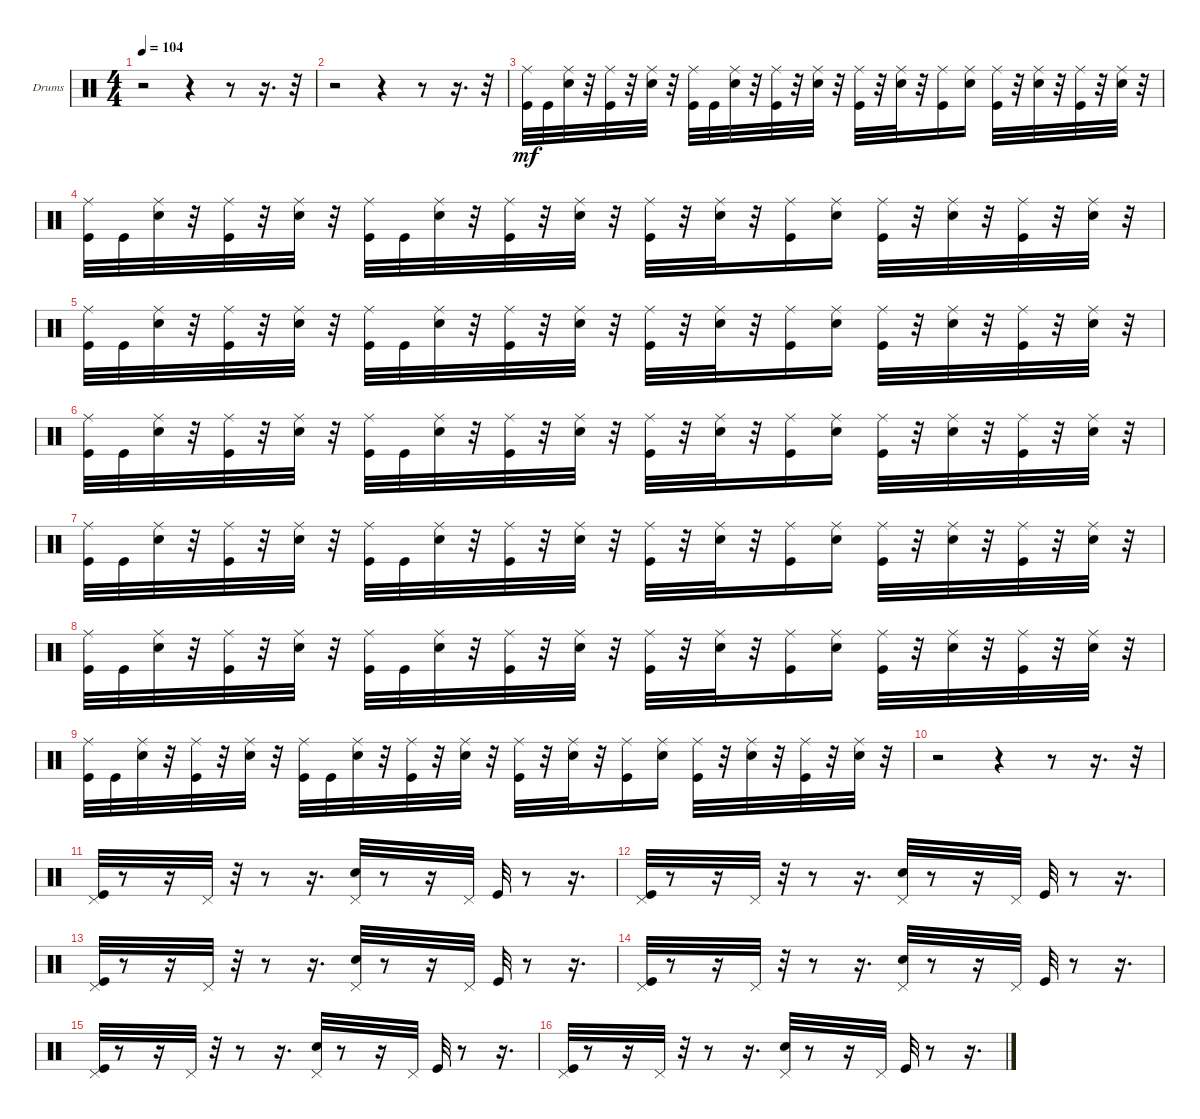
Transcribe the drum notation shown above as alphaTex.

\bracketExtendMode groupsimilarinstruments
\firstSystemTrackNameOrientation horizontal
\otherSystemsTrackNameOrientation horizontal
\track ("diviners drum" "Drums") {instrument percussion}
\staff {score}
\articulation defaults
\ts (4 4)
\tempo 104
\clef neutral
\ks c
r.2{dy mf} r.4 r.8 r.16{d} r.32 |
r.2 r.4 r.8 r.16{d} r.32 |
("Kick (hit)" "Ride (middle)").32 "Kick (hit)".32 ("Snare (hit) 2" "Ride (middle)").32 r.32 ("Kick (hit)" "Ride (middle)").32 r.32 ("Snare (hit) 2" "Ride (middle)").32 r.32 ("Kick (hit)" "Ride (middle)").32 "Kick (hit)".32 ("Snare (hit) 2" "Ride (middle)").32 r.32 ("Kick (hit)" "Ride (middle)").32 r.32 ("Snare (hit) 2" "Ride (middle)").32 r.32 ("Kick (hit)" "Ride (middle)").32 r.32 ("Snare (hit) 2" "Ride (middle)").32 r.32 ("Kick (hit)" "Ride (middle)").16 ("Snare (hit) 2" "Ride (middle)").16 ("Kick (hit)" "Ride (middle)").32 r.32 ("Snare (hit) 2" "Ride (middle)").32 r.32 ("Kick (hit)" "Ride (middle)").32 r.32 ("Snare (hit) 2" "Ride (middle)").32 r.32 |
("Kick (hit)" "Ride (middle)").32 "Kick (hit)".32 ("Snare (hit) 2" "Ride (middle)").32 r.32 ("Kick (hit)" "Ride (middle)").32 r.32 ("Snare (hit) 2" "Ride (middle)").32 r.32 ("Kick (hit)" "Ride (middle)").32 "Kick (hit)".32 ("Snare (hit) 2" "Ride (middle)").32 r.32 ("Kick (hit)" "Ride (middle)").32 r.32 ("Snare (hit) 2" "Ride (middle)").32 r.32 ("Kick (hit)" "Ride (middle)").32 r.32 ("Snare (hit) 2" "Ride (middle)").32 r.32 ("Kick (hit)" "Ride (middle)").16 ("Snare (hit) 2" "Ride (middle)").16 ("Kick (hit)" "Ride (middle)").32 r.32 ("Snare (hit) 2" "Ride (middle)").32 r.32 ("Kick (hit)" "Ride (middle)").32 r.32 ("Snare (hit) 2" "Ride (middle)").32 r.32 |
("Kick (hit)" "Ride (middle)").32 "Kick (hit)".32 ("Snare (hit) 2" "Ride (middle)").32 r.32 ("Kick (hit)" "Ride (middle)").32 r.32 ("Snare (hit) 2" "Ride (middle)").32 r.32 ("Kick (hit)" "Ride (middle)").32 "Kick (hit)".32 ("Snare (hit) 2" "Ride (middle)").32 r.32 ("Kick (hit)" "Ride (middle)").32 r.32 ("Snare (hit) 2" "Ride (middle)").32 r.32 ("Kick (hit)" "Ride (middle)").32 r.32 ("Snare (hit) 2" "Ride (middle)").32 r.32 ("Kick (hit)" "Ride (middle)").16 ("Snare (hit) 2" "Ride (middle)").16 ("Kick (hit)" "Ride (middle)").32 r.32 ("Snare (hit) 2" "Ride (middle)").32 r.32 ("Kick (hit)" "Ride (middle)").32 r.32 ("Snare (hit) 2" "Ride (middle)").32 r.32 |
("Kick (hit)" "Ride (middle)").32 "Kick (hit)".32 ("Snare (hit) 2" "Ride (middle)").32 r.32 ("Kick (hit)" "Ride (middle)").32 r.32 ("Snare (hit) 2" "Ride (middle)").32 r.32 ("Kick (hit)" "Ride (middle)").32 "Kick (hit)".32 ("Snare (hit) 2" "Ride (middle)").32 r.32 ("Kick (hit)" "Ride (middle)").32 r.32 ("Snare (hit) 2" "Ride (middle)").32 r.32 ("Kick (hit)" "Ride (middle)").32 r.32 ("Snare (hit) 2" "Ride (middle)").32 r.32 ("Kick (hit)" "Ride (middle)").16 ("Snare (hit) 2" "Ride (middle)").16 ("Kick (hit)" "Ride (middle)").32 r.32 ("Snare (hit) 2" "Ride (middle)").32 r.32 ("Kick (hit)" "Ride (middle)").32 r.32 ("Snare (hit) 2" "Ride (middle)").32 r.32 |
("Kick (hit)" "Ride (middle)").32 "Kick (hit)".32 ("Snare (hit) 2" "Ride (middle)").32 r.32 ("Kick (hit)" "Ride (middle)").32 r.32 ("Snare (hit) 2" "Ride (middle)").32 r.32 ("Kick (hit)" "Ride (middle)").32 "Kick (hit)".32 ("Snare (hit) 2" "Ride (middle)").32 r.32 ("Kick (hit)" "Ride (middle)").32 r.32 ("Snare (hit) 2" "Ride (middle)").32 r.32 ("Kick (hit)" "Ride (middle)").32 r.32 ("Snare (hit) 2" "Ride (middle)").32 r.32 ("Kick (hit)" "Ride (middle)").16 ("Snare (hit) 2" "Ride (middle)").16 ("Kick (hit)" "Ride (middle)").32 r.32 ("Snare (hit) 2" "Ride (middle)").32 r.32 ("Kick (hit)" "Ride (middle)").32 r.32 ("Snare (hit) 2" "Ride (middle)").32 r.32 |
("Kick (hit)" "Ride (middle)").32 "Kick (hit)".32 ("Snare (hit) 2" "Ride (middle)").32 r.32 ("Kick (hit)" "Ride (middle)").32 r.32 ("Snare (hit) 2" "Ride (middle)").32 r.32 ("Kick (hit)" "Ride (middle)").32 "Kick (hit)".32 ("Snare (hit) 2" "Ride (middle)").32 r.32 ("Kick (hit)" "Ride (middle)").32 r.32 ("Snare (hit) 2" "Ride (middle)").32 r.32 ("Kick (hit)" "Ride (middle)").32 r.32 ("Snare (hit) 2" "Ride (middle)").32 r.32 ("Kick (hit)" "Ride (middle)").16 ("Snare (hit) 2" "Ride (middle)").16 ("Kick (hit)" "Ride (middle)").32 r.32 ("Snare (hit) 2" "Ride (middle)").32 r.32 ("Kick (hit)" "Ride (middle)").32 r.32 ("Snare (hit) 2" "Ride (middle)").32 r.32 |
("Kick (hit)" "Ride (middle)").32 "Kick (hit)".32 ("Snare (hit) 2" "Ride (middle)").32 r.32 ("Kick (hit)" "Ride (middle)").32 r.32 ("Snare (hit) 2" "Ride (middle)").32 r.32 ("Kick (hit)" "Ride (middle)").32 "Kick (hit)".32 ("Snare (hit) 2" "Ride (middle)").32 r.32 ("Kick (hit)" "Ride (middle)").32 r.32 ("Snare (hit) 2" "Ride (middle)").32 r.32 ("Kick (hit)" "Ride (middle)").32 r.32 ("Snare (hit) 2" "Ride (middle)").32 r.32 ("Kick (hit)" "Ride (middle)").16 ("Snare (hit) 2" "Ride (middle)").16 ("Kick (hit)" "Ride (middle)").32 r.32 ("Snare (hit) 2" "Ride (middle)").32 r.32 ("Kick (hit)" "Ride (middle)").32 r.32 ("Snare (hit) 2" "Ride (middle)").32 r.32 |
r.2 r.4 r.8 r.16{d} r.32 |
("Kick (hit)" "Pedal Hi-Hat (hit)").32 r.8 r.16 "Pedal Hi-Hat (hit)".32 r.32 r.8 r.16{d} ("Snare (hit) 2" "Pedal Hi-Hat (hit)").32 r.8 r.16 "Pedal Hi-Hat (hit)".32 "Kick (hit)".32 r.8 r.16{d} |
("Kick (hit)" "Pedal Hi-Hat (hit)").32 r.8 r.16 "Pedal Hi-Hat (hit)".32 r.32 r.8 r.16{d} ("Snare (hit) 2" "Pedal Hi-Hat (hit)").32 r.8 r.16 "Pedal Hi-Hat (hit)".32 "Kick (hit)".32 r.8 r.16{d} |
("Kick (hit)" "Pedal Hi-Hat (hit)").32 r.8 r.16 "Pedal Hi-Hat (hit)".32 r.32 r.8 r.16{d} ("Snare (hit) 2" "Pedal Hi-Hat (hit)").32 r.8 r.16 "Pedal Hi-Hat (hit)".32 "Kick (hit)".32 r.8 r.16{d} |
("Kick (hit)" "Pedal Hi-Hat (hit)").32 r.8 r.16 "Pedal Hi-Hat (hit)".32 r.32 r.8 r.16{d} ("Snare (hit) 2" "Pedal Hi-Hat (hit)").32 r.8 r.16 "Pedal Hi-Hat (hit)".32 "Kick (hit)".32 r.8 r.16{d} |
("Kick (hit)" "Pedal Hi-Hat (hit)").32 r.8 r.16 "Pedal Hi-Hat (hit)".32 r.32 r.8 r.16{d} ("Snare (hit) 2" "Pedal Hi-Hat (hit)").32 r.8 r.16 "Pedal Hi-Hat (hit)".32 "Kick (hit)".32 r.8 r.16{d} |
("Kick (hit)" "Pedal Hi-Hat (hit)").32 r.8 r.16 "Pedal Hi-Hat (hit)".32 r.32 r.8 r.16{d} ("Snare (hit) 2" "Pedal Hi-Hat (hit)").32 r.8 r.16 "Pedal Hi-Hat (hit)".32 "Kick (hit)".32 r.8 r.16{d}
